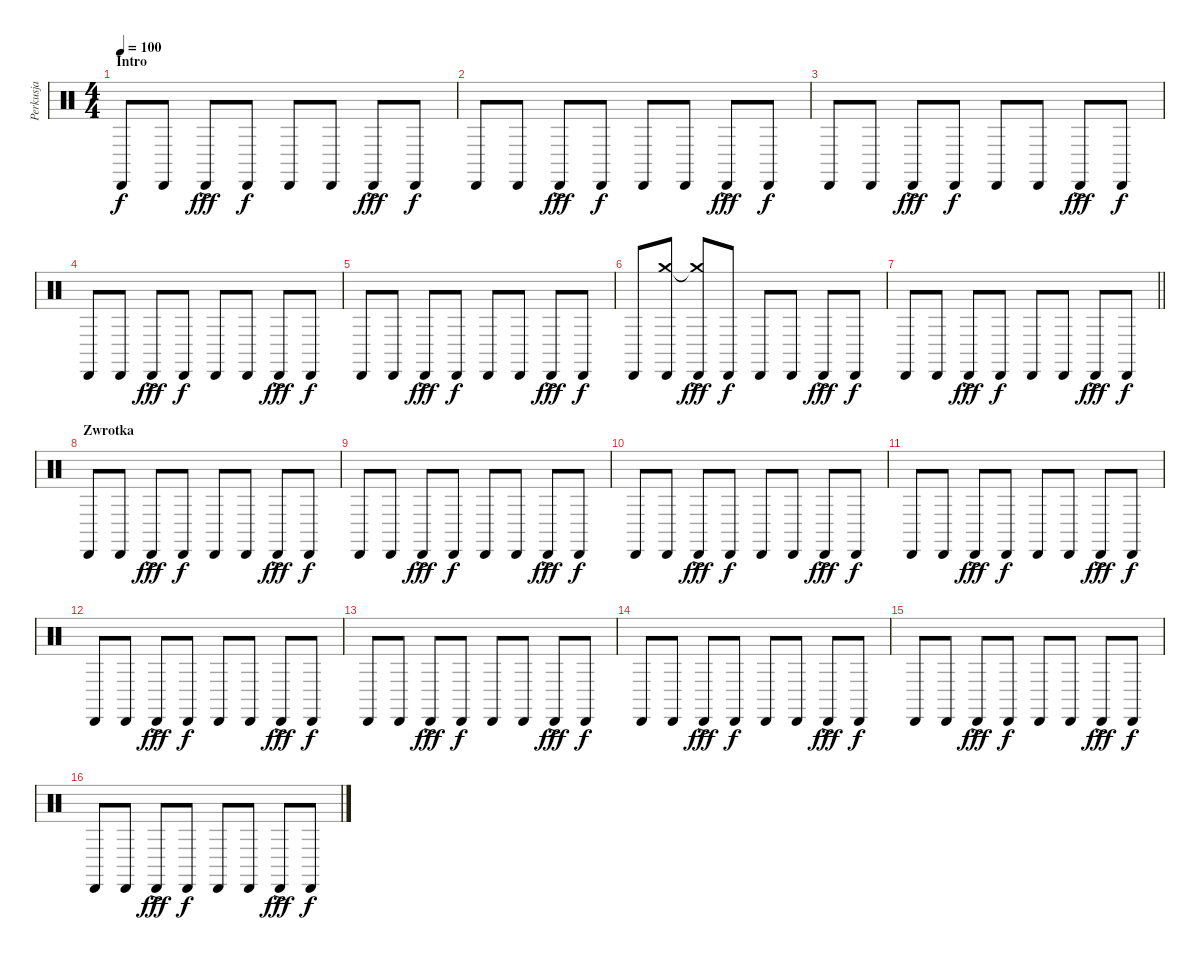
\track ("Perkusja" "Perkusja") {instrument percussion}
\staff {score}
\articulation defaults
\ts (4 4)
\section ("" "Intro")
\tempo 100
\clef neutral
\ks c "Cabasa (hit)".8{dy f} "Cabasa (hit)".8 "Cabasa (hit)"{ac}.8{dy fff} "Cabasa (hit)".8{dy f} "Cabasa (hit)".8 "Cabasa (hit)".8 "Cabasa (hit)"{ac}.8{dy fff} "Cabasa (hit)".8{dy f}
|
"Cabasa (hit)".8 "Cabasa (hit)".8 "Cabasa (hit)"{ac}.8{dy fff} "Cabasa (hit)".8{dy f} "Cabasa (hit)".8 "Cabasa (hit)".8 "Cabasa (hit)"{ac}.8{dy fff} "Cabasa (hit)".8{dy f} |
"Cabasa (hit)".8 "Cabasa (hit)".8 "Cabasa (hit)"{ac}.8{dy fff} "Cabasa (hit)".8{dy f} "Cabasa (hit)".8 "Cabasa (hit)".8 "Cabasa (hit)"{ac}.8{dy fff} "Cabasa (hit)".8{dy f} |
"Cabasa (hit)".8 "Cabasa (hit)".8 "Cabasa (hit)"{ac}.8{dy fff} "Cabasa (hit)".8{dy f} "Cabasa (hit)".8 "Cabasa (hit)".8 "Cabasa (hit)"{ac}.8{dy fff} "Cabasa (hit)".8{dy f} |
"Cabasa (hit)".8 "Cabasa (hit)".8 "Cabasa (hit)"{ac}.8{dy fff} "Cabasa (hit)".8{dy f} "Cabasa (hit)".8 "Cabasa (hit)".8 "Cabasa (hit)"{ac}.8{dy fff} "Cabasa (hit)".8{dy f} |
"Cabasa (hit)".8 ("Cabasa (hit)" "Crash medium (hit)").8 ("Cabasa (hit)"{ac} "Crash medium (hit)"{t}).8{dy fff} "Cabasa (hit)".8{dy f} "Cabasa (hit)".8 "Cabasa (hit)".8 "Cabasa (hit)"{ac}.8{dy fff} "Cabasa (hit)".8{dy f} |
\barLineRight lightlight "Cabasa (hit)".8 "Cabasa (hit)".8 "Cabasa (hit)"{ac}.8{dy fff} "Cabasa (hit)".8{dy f} "Cabasa (hit)".8 "Cabasa (hit)".8 "Cabasa (hit)"{ac}.8{dy fff} "Cabasa (hit)".8{dy f}
|
\section ("" "Zwrotka")
"Cabasa (hit)".8 "Cabasa (hit)".8 "Cabasa (hit)"{ac}.8{dy fff} "Cabasa (hit)".8{dy f} "Cabasa (hit)".8 "Cabasa (hit)".8 "Cabasa (hit)"{ac}.8{dy fff} "Cabasa (hit)".8{dy f} |
"Cabasa (hit)".8 "Cabasa (hit)".8 "Cabasa (hit)"{ac}.8{dy fff} "Cabasa (hit)".8{dy f} "Cabasa (hit)".8 "Cabasa (hit)".8 "Cabasa (hit)"{ac}.8{dy fff} "Cabasa (hit)".8{dy f} |
"Cabasa (hit)".8 "Cabasa (hit)".8 "Cabasa (hit)"{ac}.8{dy fff} "Cabasa (hit)".8{dy f} "Cabasa (hit)".8 "Cabasa (hit)".8 "Cabasa (hit)"{ac}.8{dy fff} "Cabasa (hit)".8{dy f} |
"Cabasa (hit)".8 "Cabasa (hit)".8 "Cabasa (hit)"{ac}.8{dy fff} "Cabasa (hit)".8{dy f} "Cabasa (hit)".8 "Cabasa (hit)".8 "Cabasa (hit)"{ac}.8{dy fff} "Cabasa (hit)".8{dy f} |
"Cabasa (hit)".8 "Cabasa (hit)".8 "Cabasa (hit)"{ac}.8{dy fff} "Cabasa (hit)".8{dy f} "Cabasa (hit)".8 "Cabasa (hit)".8 "Cabasa (hit)"{ac}.8{dy fff} "Cabasa (hit)".8{dy f} |
"Cabasa (hit)".8 "Cabasa (hit)".8 "Cabasa (hit)"{ac}.8{dy fff} "Cabasa (hit)".8{dy f} "Cabasa (hit)".8 "Cabasa (hit)".8 "Cabasa (hit)"{ac}.8{dy fff} "Cabasa (hit)".8{dy f} |
"Cabasa (hit)".8 "Cabasa (hit)".8 "Cabasa (hit)"{ac}.8{dy fff} "Cabasa (hit)".8{dy f} "Cabasa (hit)".8 "Cabasa (hit)".8 "Cabasa (hit)"{ac}.8{dy fff} "Cabasa (hit)".8{dy f} |
"Cabasa (hit)".8 "Cabasa (hit)".8 "Cabasa (hit)"{ac}.8{dy fff} "Cabasa (hit)".8{dy f} "Cabasa (hit)".8 "Cabasa (hit)".8 "Cabasa (hit)"{ac}.8{dy fff} "Cabasa (hit)".8{dy f} |
"Cabasa (hit)".8 "Cabasa (hit)".8 "Cabasa (hit)"{ac}.8{dy fff} "Cabasa (hit)".8{dy f} "Cabasa (hit)".8 "Cabasa (hit)".8 "Cabasa (hit)"{ac}.8{dy fff} "Cabasa (hit)".8{dy f}
